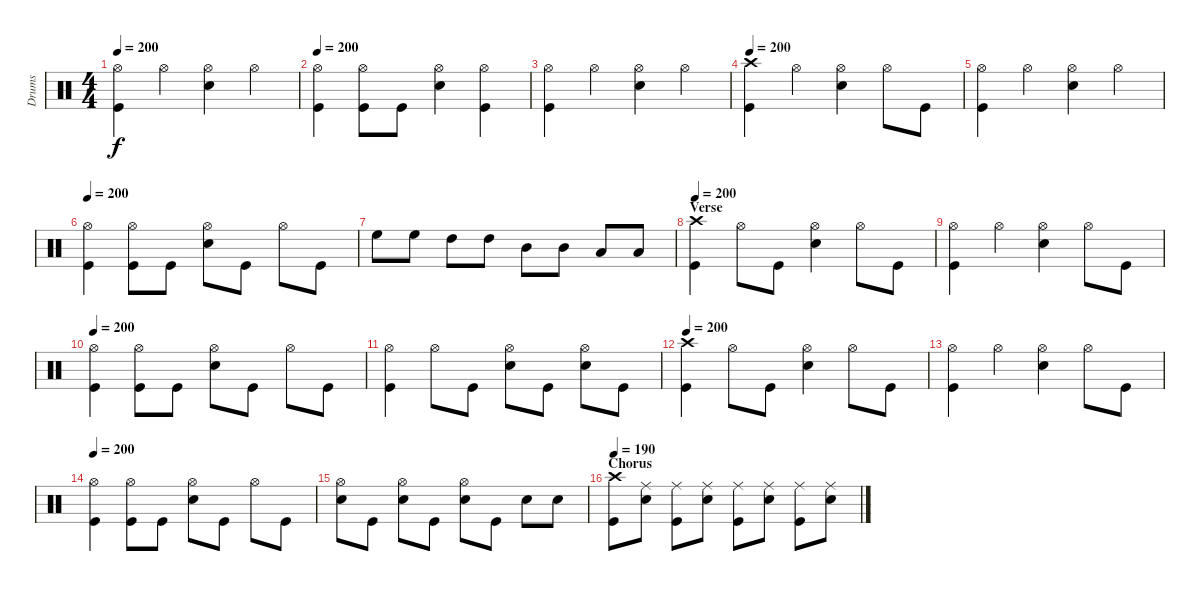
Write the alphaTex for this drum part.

\track ("Drums" "Drums") {instrument percussion}
\staff {score}
\articulation defaults
\ts (4 4)
\tempo 200
\clef neutral
\ks c
("Hi-Hat (open)" "Kick (hit)").4{dy f} "Hi-Hat (open)".4 ("Hi-Hat (open)" "Snare (hit) 2").4 "Hi-Hat (open)".4 |
\tempo 200
("Hi-Hat (open)" "Kick (hit)").4 ("Hi-Hat (open)" "Kick (hit)").8 "Kick (hit)".8 ("Hi-Hat (open)" "Snare (hit) 2").4 ("Hi-Hat (open)" "Kick (hit)").4 |
("Hi-Hat (open)" "Kick (hit)").4 "Hi-Hat (open)".4 ("Hi-Hat (open)" "Snare (hit) 2").4 "Hi-Hat (open)".4 |
\tempo 200
("Crash high (hit)" "Kick (hit)").4 "Hi-Hat (open)".4 ("Hi-Hat (open)" "Snare (hit) 2").4 "Hi-Hat (open)".8 "Kick (hit)".8 |
("Hi-Hat (open)" "Kick (hit)").4 "Hi-Hat (open)".4 ("Hi-Hat (open)" "Snare (hit) 2").4 "Hi-Hat (open)".4 |
\tempo 200
("Hi-Hat (open)" "Kick (hit)").4 ("Hi-Hat (open)" "Kick (hit)").8 "Kick (hit)".8 ("Hi-Hat (open)" "Snare (hit) 2").8 "Kick (hit)".8 "Hi-Hat (open)".8 "Kick (hit)".8 |
"High Floor Tom (hit)".8 "High Floor Tom (hit)".8 "High Tom (hit)".8 "High Tom (hit)".8 "Mid Tom (hit)".8 "Mid Tom (hit)".8 "Low Tom (hit)".8 "Low Tom (hit)".8 |
\section ("" "Verse")
\tempo 200
("Crash high (hit)" "Kick (hit)").4 "Hi-Hat (open)".8 "Kick (hit)".8 ("Hi-Hat (open)" "Snare (hit) 2").4 "Hi-Hat (open)".8 "Kick (hit)".8 |
("Hi-Hat (open)" "Kick (hit)").4 "Hi-Hat (open)".4 ("Hi-Hat (open)" "Snare (hit) 2").4 "Hi-Hat (open)".8 "Kick (hit)".8 |
\tempo 200
("Hi-Hat (open)" "Kick (hit)").4 ("Hi-Hat (open)" "Kick (hit)").8 "Kick (hit)".8 ("Hi-Hat (open)" "Snare (hit) 2").8 "Kick (hit)".8 "Hi-Hat (open)".8 "Kick (hit)".8 |
("Hi-Hat (open)" "Kick (hit)").4 "Hi-Hat (open)".8 "Kick (hit)".8 ("Hi-Hat (open)" "Snare (hit) 2").8 "Kick (hit)".8 ("Hi-Hat (open)" "Snare (hit) 2").8 "Kick (hit)".8 |
\tempo 200
("Crash high (hit)" "Kick (hit)").4 "Hi-Hat (open)".8 "Kick (hit)".8 ("Hi-Hat (open)" "Snare (hit) 2").4 "Hi-Hat (open)".8 "Kick (hit)".8 |
("Hi-Hat (open)" "Kick (hit)").4 "Hi-Hat (open)".4 ("Hi-Hat (open)" "Snare (hit) 2").4 "Hi-Hat (open)".8 "Kick (hit)".8 |
\tempo 200
("Hi-Hat (open)" "Kick (hit)").4 ("Hi-Hat (open)" "Kick (hit)").8 "Kick (hit)".8 ("Hi-Hat (open)" "Snare (hit) 2").8 "Kick (hit)".8 "Hi-Hat (open)".8 "Kick (hit)".8 |
("Hi-Hat (open)" "Snare (hit) 2").8 "Kick (hit)".8 ("Hi-Hat (open)" "Snare (hit) 2").8 "Kick (hit)".8 ("Hi-Hat (open)" "Snare (hit) 2").8 "Kick (hit)".8 "Snare (hit) 2".8 "Snare (hit) 2".8 |
\section ("" "Chorus")
\tempo 190
("Crash high (hit)" "Kick (hit)").8 ("Ride (middle)" "Snare (hit) 2").8 ("Ride (middle)" "Kick (hit)").8 ("Ride (middle)" "Snare (hit) 2").8 ("Ride (middle)" "Kick (hit)").8 ("Ride (middle)" "Snare (hit) 2").8 ("Ride (middle)" "Kick (hit)").8 ("Ride (middle)" "Snare (hit) 2").8
